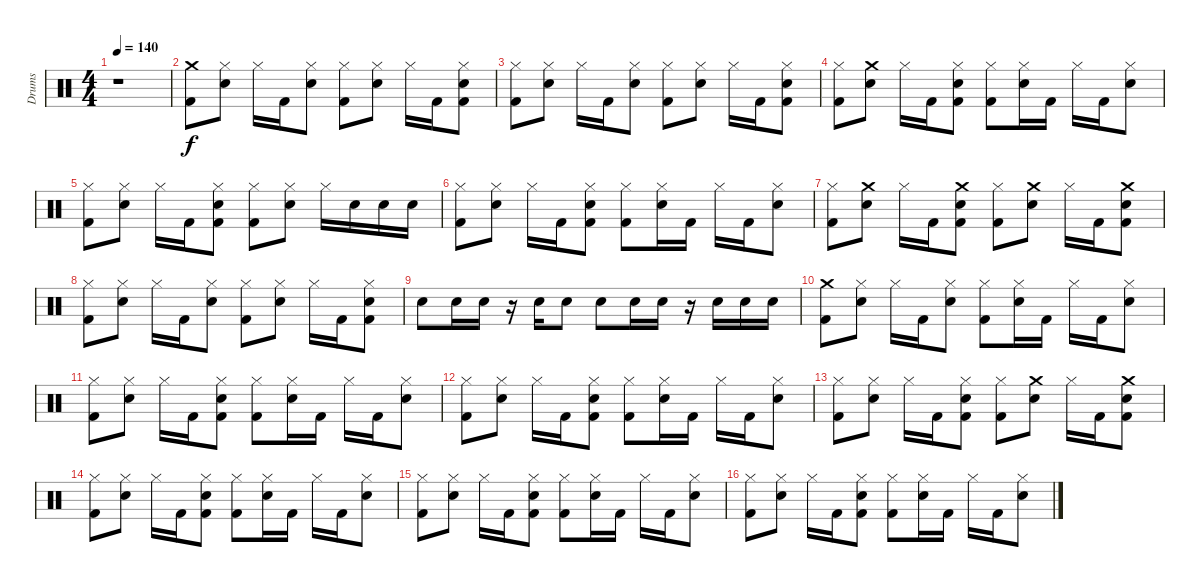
\track ("Drums" "Drums") {instrument percussion}
\staff {score}
\articulation defaults
\ts (4 4)
\tempo 140
\clef neutral
\ks c
r.1{dy f} |
("Crash medium (hit)" "Kick (hit) 2").8 ("Snare (hit) 2" "Hi-Hat (closed)").8 "Hi-Hat (closed)".16 "Kick (hit) 2".16 ("Snare (hit) 2" "Hi-Hat (closed)").8 ("Hi-Hat (closed)" "Kick (hit) 2").8 ("Snare (hit) 2" "Hi-Hat (closed)").8 "Hi-Hat (closed)".16 "Kick (hit) 2".16 ("Snare (hit) 2" "Hi-Hat (closed)" "Kick (hit) 2").8 |
("Hi-Hat (closed)" "Kick (hit) 2").8 ("Snare (hit) 2" "Hi-Hat (closed)").8 "Hi-Hat (closed)".16 "Kick (hit) 2".16 ("Snare (hit) 2" "Hi-Hat (closed)").8 ("Hi-Hat (closed)" "Kick (hit) 2").8 ("Snare (hit) 2" "Hi-Hat (closed)").8 "Hi-Hat (closed)".16 "Kick (hit) 2".16 ("Snare (hit) 2" "Hi-Hat (closed)" "Kick (hit) 2").8 |
("Hi-Hat (closed)" "Kick (hit) 2").8 ("Snare (hit) 2" "Crash medium (hit)").8 "Hi-Hat (closed)".16 "Kick (hit) 2".16 ("Snare (hit) 2" "Hi-Hat (closed)" "Kick (hit) 2").8 ("Hi-Hat (closed)" "Kick (hit) 2").8 ("Snare (hit) 2" "Hi-Hat (closed)").16 "Kick (hit) 2".16 "Hi-Hat (closed)".16 "Kick (hit) 2".16 ("Snare (hit) 2" "Hi-Hat (closed)").8 |
("Hi-Hat (closed)" "Kick (hit) 2").8 ("Snare (hit) 2" "Hi-Hat (closed)").8 "Hi-Hat (closed)".16 "Kick (hit) 2".16 ("Snare (hit) 2" "Hi-Hat (closed)" "Kick (hit) 2").8 ("Hi-Hat (closed)" "Kick (hit) 2").8 ("Snare (hit) 2" "Hi-Hat (closed)").8 "Hi-Hat (closed)".16 "Snare (hit) 2".16 "Snare (hit) 2".16 "Snare (hit) 2".16 |
("Hi-Hat (closed)" "Kick (hit) 2").8 ("Hi-Hat (closed)" "Snare (hit) 2").8 "Hi-Hat (closed)".16 "Kick (hit) 2".16 ("Snare (hit) 2" "Hi-Hat (closed)" "Kick (hit) 2").8 ("Hi-Hat (closed)" "Kick (hit) 2").8 ("Snare (hit) 2" "Hi-Hat (closed)").16 "Kick (hit) 2".16 "Hi-Hat (closed)".16 "Kick (hit) 2".16 ("Snare (hit) 2" "Hi-Hat (closed)").8 |
("Kick (hit) 2" "Hi-Hat (closed)").8 ("Crash medium (hit)" "Snare (hit) 2").8 "Hi-Hat (closed)".16 "Kick (hit) 2".16 ("Kick (hit) 2" "Crash medium (hit)" "Snare (hit) 2").8 ("Kick (hit) 2" "Hi-Hat (closed)").8 ("Snare (hit) 2" "Crash medium (hit)").8 "Hi-Hat (closed)".16 "Kick (hit) 2".16 ("Crash medium (hit)" "Snare (hit) 2" "Kick (hit) 2").8 |
("Hi-Hat (closed)" "Kick (hit) 2").8 ("Snare (hit) 2" "Hi-Hat (closed)").8 "Hi-Hat (closed)".16 "Kick (hit) 2".16 ("Snare (hit) 2" "Hi-Hat (closed)").8 ("Hi-Hat (closed)" "Kick (hit) 2").8 ("Snare (hit) 2" "Hi-Hat (closed)").8 "Hi-Hat (closed)".16 "Kick (hit) 2".16 ("Snare (hit) 2" "Hi-Hat (closed)" "Kick (hit) 2").8 |
"Snare (hit) 2".8 "Snare (hit) 2".16 "Snare (hit) 2".16 r.16 "Snare (hit) 2".16 "Snare (hit) 2".8 "Snare (hit) 2".8 "Snare (hit) 2".16 "Snare (hit) 2".16 r.16 "Snare (hit) 2".16 "Snare (hit) 2".16 "Snare (hit) 2".16 |
("Kick (hit) 2" "Crash medium (hit)").8 ("Snare (hit) 2" "Hi-Hat (closed)").8 "Hi-Hat (closed)".16 "Kick (hit) 2".16 ("Snare (hit) 2" "Hi-Hat (closed)").8 ("Kick (hit) 2" "Hi-Hat (closed)").8 ("Snare (hit) 2" "Hi-Hat (closed)").16 "Kick (hit) 2".16 "Hi-Hat (closed)".16 "Kick (hit) 2".16 ("Snare (hit) 2" "Hi-Hat (closed)").8 |
("Hi-Hat (closed)" "Kick (hit) 2").8 ("Snare (hit) 2" "Hi-Hat (closed)").8 "Hi-Hat (closed)".16 "Kick (hit) 2".16 ("Kick (hit) 2" "Snare (hit) 2" "Hi-Hat (closed)").8 ("Kick (hit) 2" "Hi-Hat (closed)").8 ("Snare (hit) 2" "Hi-Hat (closed)").16 "Kick (hit) 2".16 "Hi-Hat (closed)".16 "Kick (hit) 2".16 ("Snare (hit) 2" "Hi-Hat (closed)").8 |
("Hi-Hat (closed)" "Kick (hit) 2").8 ("Snare (hit) 2" "Hi-Hat (closed)").8 "Hi-Hat (closed)".16 "Kick (hit) 2".16 ("Snare (hit) 2" "Hi-Hat (closed)" "Kick (hit) 2").8 ("Hi-Hat (closed)" "Kick (hit) 2").8 ("Snare (hit) 2" "Hi-Hat (closed)").16 "Kick (hit) 2".16 "Hi-Hat (closed)".16 "Kick (hit) 2".16 ("Snare (hit) 2" "Hi-Hat (closed)").8 |
("Hi-Hat (closed)" "Kick (hit) 2").8 ("Snare (hit) 2" "Hi-Hat (closed)").8 "Hi-Hat (closed)".16 "Kick (hit) 2".16 ("Kick (hit) 2" "Snare (hit) 2" "Hi-Hat (closed)").8 ("Hi-Hat (closed)" "Kick (hit) 2").8 ("Crash medium (hit)" "Snare (hit) 2").8 "Hi-Hat (closed)".16 "Kick (hit) 2".16 ("Kick (hit) 2" "Crash medium (hit)" "Snare (hit) 2").8 |
("Hi-Hat (closed)" "Kick (hit) 2").8 ("Snare (hit) 2" "Hi-Hat (closed)").8 "Hi-Hat (closed)".16 "Kick (hit) 2".16 ("Kick (hit) 2" "Snare (hit) 2" "Hi-Hat (closed)").8 ("Kick (hit) 2" "Hi-Hat (closed)").8 ("Snare (hit) 2" "Hi-Hat (closed)").16 "Kick (hit) 2".16 "Hi-Hat (closed)".16 "Kick (hit) 2".16 ("Snare (hit) 2" "Hi-Hat (closed)").8 |
("Hi-Hat (closed)" "Kick (hit) 2").8 ("Snare (hit) 2" "Hi-Hat (closed)").8 "Hi-Hat (closed)".16 "Kick (hit) 2".16 ("Kick (hit) 2" "Snare (hit) 2" "Hi-Hat (closed)").8 ("Kick (hit) 2" "Hi-Hat (closed)").8 ("Snare (hit) 2" "Hi-Hat (closed)").16 "Kick (hit) 2".16 "Hi-Hat (closed)".16 "Kick (hit) 2".16 ("Snare (hit) 2" "Hi-Hat (closed)").8 |
("Hi-Hat (closed)" "Kick (hit) 2").8 ("Snare (hit) 2" "Hi-Hat (closed)").8 "Hi-Hat (closed)".16 "Kick (hit) 2".16 ("Kick (hit) 2" "Snare (hit) 2" "Hi-Hat (closed)").8 ("Kick (hit) 2" "Hi-Hat (closed)").8 ("Snare (hit) 2" "Hi-Hat (closed)").16 "Kick (hit) 2".16 "Hi-Hat (closed)".16 "Kick (hit) 2".16 ("Snare (hit) 2" "Hi-Hat (closed)").8
